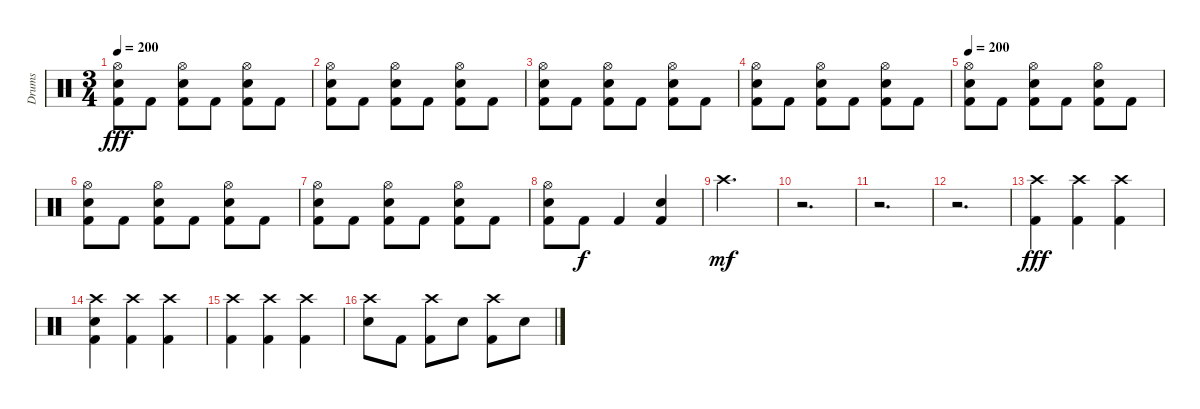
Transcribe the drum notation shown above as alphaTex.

\track ("Drums" "Drums") {instrument percussion}
\staff {score}
\articulation defaults
\ts (3 4)
\tempo 200
\clef neutral
\ks c
("Hi-Hat (open)" "Electric Snare (hit)" "Kick (hit) 2").8{dy fff} "Kick (hit) 2".8 ("Hi-Hat (open)" "Electric Snare (hit)" "Kick (hit) 2").8 "Kick (hit) 2".8 ("Hi-Hat (open)" "Electric Snare (hit)" "Kick (hit) 2").8 "Kick (hit) 2".8 |
("Hi-Hat (open)" "Electric Snare (hit)" "Kick (hit) 2").8 "Kick (hit) 2".8 ("Hi-Hat (open)" "Electric Snare (hit)" "Kick (hit) 2").8 "Kick (hit) 2".8 ("Hi-Hat (open)" "Electric Snare (hit)" "Kick (hit) 2").8 "Kick (hit) 2".8 |
("Hi-Hat (open)" "Electric Snare (hit)" "Kick (hit) 2").8 "Kick (hit) 2".8 ("Hi-Hat (open)" "Electric Snare (hit)" "Kick (hit) 2").8 "Kick (hit) 2".8 ("Hi-Hat (open)" "Electric Snare (hit)" "Kick (hit) 2").8 "Kick (hit) 2".8 |
("Hi-Hat (open)" "Electric Snare (hit)" "Kick (hit) 2").8 "Kick (hit) 2".8 ("Hi-Hat (open)" "Electric Snare (hit)" "Kick (hit) 2").8 "Kick (hit) 2".8 ("Hi-Hat (open)" "Electric Snare (hit)" "Kick (hit) 2").8 "Kick (hit) 2".8 |
\tempo 200
("Hi-Hat (open)" "Electric Snare (hit)" "Kick (hit) 2").8 "Kick (hit) 2".8 ("Hi-Hat (open)" "Electric Snare (hit)" "Kick (hit) 2").8 "Kick (hit) 2".8 ("Hi-Hat (open)" "Electric Snare (hit)" "Kick (hit) 2").8 "Kick (hit) 2".8 |
("Hi-Hat (open)" "Electric Snare (hit)" "Kick (hit) 2").8 "Kick (hit) 2".8 ("Hi-Hat (open)" "Electric Snare (hit)" "Kick (hit) 2").8 "Kick (hit) 2".8 ("Hi-Hat (open)" "Electric Snare (hit)" "Kick (hit) 2").8 "Kick (hit) 2".8 |
("Hi-Hat (open)" "Electric Snare (hit)" "Kick (hit) 2").8 "Kick (hit) 2".8 ("Hi-Hat (open)" "Electric Snare (hit)" "Kick (hit) 2").8 "Kick (hit) 2".8 ("Hi-Hat (open)" "Electric Snare (hit)" "Kick (hit) 2").8 "Kick (hit) 2".8 |
("Hi-Hat (open)" "Electric Snare (hit)" "Kick (hit) 2").8 "Kick (hit) 2".8{dy f} "Kick (hit) 2".4 ("Electric Snare (hit)" "Kick (hit) 2").4 |
"Crash high (hit)".2{d dy mf} |
r.2{d} |
r.2{d} |
r.2{d} |
("Crash high (hit)" "Kick (hit) 2").4{dy fff} ("Crash high (hit)" "Kick (hit) 2").4 ("Crash high (hit)" "Kick (hit) 2").4 |
("Crash high (hit)" "Electric Snare (hit)" "Kick (hit) 2").4 ("Crash high (hit)" "Kick (hit) 2").4 ("Crash high (hit)" "Kick (hit) 2").4 |
("Crash high (hit)" "Kick (hit) 2").4 ("Crash high (hit)" "Kick (hit) 2").4 ("Crash high (hit)" "Kick (hit) 2").4 |
("Crash high (hit)" "Electric Snare (hit)").8 "Kick (hit) 2".8 ("Crash high (hit)" "Kick (hit) 2").8 "Electric Snare (hit)".8 ("Crash high (hit)" "Kick (hit) 2").8 "Electric Snare (hit)".8
